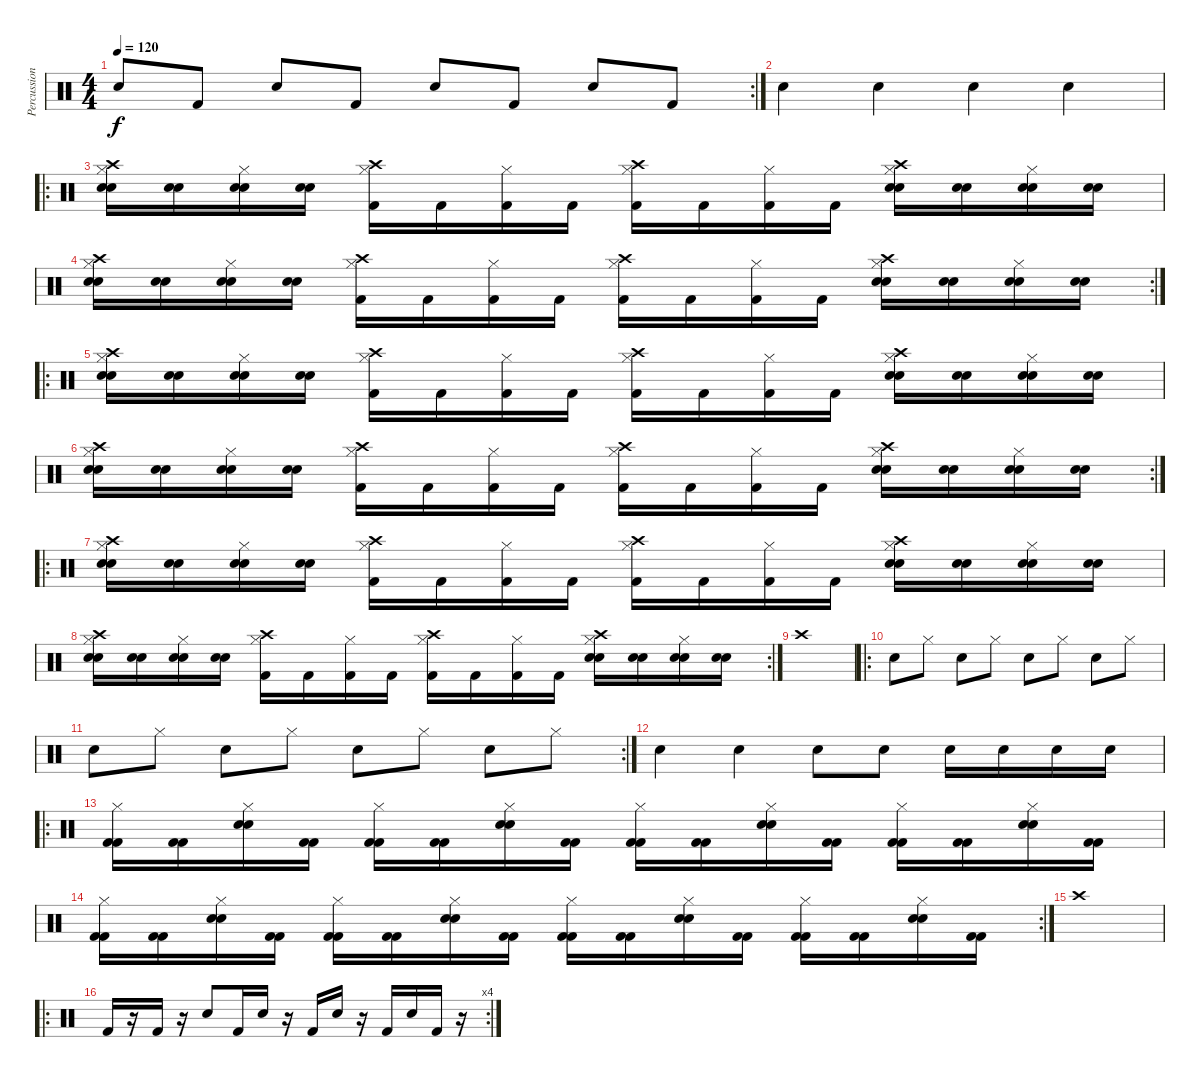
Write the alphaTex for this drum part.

\track ("Percussions" "Percussion") {instrument percussion}
\staff {score}
\articulation defaults
\rc 2
\ts (4 4)
\tempo 120
\clef neutral
\ks c "Snare (hit) 2".8{dy f} "Kick (hit) 2".8 "Snare (hit) 2".8 "Kick (hit) 2".8 "Snare (hit) 2".8 "Kick (hit) 2".8 "Snare (hit) 2".8 "Kick (hit) 2".8
|
"Snare (hit) 2".4 "Snare (hit) 2".4 "Snare (hit) 2".4 "Snare (hit) 2".4 |
\ro
("Hi-Hat (closed)" "Crash high (hit)" "Snare (hit) 2" "Snare (hit) 2").16 ("Snare (hit) 2" "Snare (hit) 2").16 ("Hi-Hat (closed)" "Snare (hit) 2" "Snare (hit) 2").16 ("Snare (hit) 2" "Snare (hit) 2").16 ("Hi-Hat (closed)" "Crash high (hit)" "Kick (hit) 2").16 "Kick (hit) 2".16 ("Hi-Hat (closed)" "Kick (hit) 2").16 "Kick (hit) 2".16 ("Hi-Hat (closed)" "Crash high (hit)" "Kick (hit) 2").16 "Kick (hit) 2".16 ("Hi-Hat (closed)" "Kick (hit) 2").16 "Kick (hit) 2".16 ("Hi-Hat (closed)" "Crash high (hit)" "Snare (hit) 2" "Snare (hit) 2").16 ("Snare (hit) 2" "Snare (hit) 2").16 ("Hi-Hat (closed)" "Snare (hit) 2" "Snare (hit) 2").16 ("Snare (hit) 2" "Snare (hit) 2").16 |
\rc 2
("Hi-Hat (closed)" "Crash high (hit)" "Snare (hit) 2" "Snare (hit) 2").16 ("Snare (hit) 2" "Snare (hit) 2").16 ("Hi-Hat (closed)" "Snare (hit) 2" "Snare (hit) 2").16 ("Snare (hit) 2" "Snare (hit) 2").16 ("Hi-Hat (closed)" "Crash high (hit)" "Kick (hit) 2").16 "Kick (hit) 2".16 ("Hi-Hat (closed)" "Kick (hit) 2").16 "Kick (hit) 2".16 ("Hi-Hat (closed)" "Crash high (hit)" "Kick (hit) 2").16 "Kick (hit) 2".16 ("Hi-Hat (closed)" "Kick (hit) 2").16 "Kick (hit) 2".16 ("Hi-Hat (closed)" "Crash high (hit)" "Snare (hit) 2" "Snare (hit) 2").16 ("Snare (hit) 2" "Snare (hit) 2").16 ("Hi-Hat (closed)" "Snare (hit) 2" "Snare (hit) 2").16 ("Snare (hit) 2" "Snare (hit) 2").16 |
\ro
("Hi-Hat (closed)" "Crash high (hit)" "Snare (hit) 2" "Snare (hit) 2").16 ("Snare (hit) 2" "Snare (hit) 2").16 ("Hi-Hat (closed)" "Snare (hit) 2" "Snare (hit) 2").16 ("Snare (hit) 2" "Snare (hit) 2").16 ("Hi-Hat (closed)" "Crash high (hit)" "Kick (hit) 2").16 "Kick (hit) 2".16 ("Hi-Hat (closed)" "Kick (hit) 2").16 "Kick (hit) 2".16 ("Hi-Hat (closed)" "Crash high (hit)" "Kick (hit) 2").16 "Kick (hit) 2".16 ("Hi-Hat (closed)" "Kick (hit) 2").16 "Kick (hit) 2".16 ("Hi-Hat (closed)" "Crash high (hit)" "Snare (hit) 2" "Snare (hit) 2").16 ("Snare (hit) 2" "Snare (hit) 2").16 ("Hi-Hat (closed)" "Snare (hit) 2" "Snare (hit) 2").16 ("Snare (hit) 2" "Snare (hit) 2").16 |
\rc 2
("Hi-Hat (closed)" "Crash high (hit)" "Snare (hit) 2" "Snare (hit) 2").16 ("Snare (hit) 2" "Snare (hit) 2").16 ("Hi-Hat (closed)" "Snare (hit) 2" "Snare (hit) 2").16 ("Snare (hit) 2" "Snare (hit) 2").16 ("Hi-Hat (closed)" "Crash high (hit)" "Kick (hit) 2").16 "Kick (hit) 2".16 ("Hi-Hat (closed)" "Kick (hit) 2").16 "Kick (hit) 2".16 ("Hi-Hat (closed)" "Crash high (hit)" "Kick (hit) 2").16 "Kick (hit) 2".16 ("Hi-Hat (closed)" "Kick (hit) 2").16 "Kick (hit) 2".16 ("Hi-Hat (closed)" "Crash high (hit)" "Snare (hit) 2" "Snare (hit) 2").16 ("Snare (hit) 2" "Snare (hit) 2").16 ("Hi-Hat (closed)" "Snare (hit) 2" "Snare (hit) 2").16 ("Snare (hit) 2" "Snare (hit) 2").16 |
\ro
("Hi-Hat (closed)" "Crash high (hit)" "Snare (hit) 2" "Snare (hit) 2").16 ("Snare (hit) 2" "Snare (hit) 2").16 ("Hi-Hat (closed)" "Snare (hit) 2" "Snare (hit) 2").16 ("Snare (hit) 2" "Snare (hit) 2").16 ("Hi-Hat (closed)" "Crash high (hit)" "Kick (hit) 2").16 "Kick (hit) 2".16 ("Hi-Hat (closed)" "Kick (hit) 2").16 "Kick (hit) 2".16 ("Hi-Hat (closed)" "Crash high (hit)" "Kick (hit) 2").16 "Kick (hit) 2".16 ("Hi-Hat (closed)" "Kick (hit) 2").16 "Kick (hit) 2".16 ("Hi-Hat (closed)" "Crash high (hit)" "Snare (hit) 2" "Snare (hit) 2").16 ("Snare (hit) 2" "Snare (hit) 2").16 ("Hi-Hat (closed)" "Snare (hit) 2" "Snare (hit) 2").16 ("Snare (hit) 2" "Snare (hit) 2").16 |
\rc 2
("Hi-Hat (closed)" "Crash high (hit)" "Snare (hit) 2" "Snare (hit) 2").16 ("Snare (hit) 2" "Snare (hit) 2").16 ("Hi-Hat (closed)" "Snare (hit) 2" "Snare (hit) 2").16 ("Snare (hit) 2" "Snare (hit) 2").16 ("Hi-Hat (closed)" "Crash high (hit)" "Kick (hit) 2").16 "Kick (hit) 2".16 ("Hi-Hat (closed)" "Kick (hit) 2").16 "Kick (hit) 2".16 ("Hi-Hat (closed)" "Crash high (hit)" "Kick (hit) 2").16 "Kick (hit) 2".16 ("Hi-Hat (closed)" "Kick (hit) 2").16 "Kick (hit) 2".16 ("Hi-Hat (closed)" "Crash high (hit)" "Snare (hit) 2" "Snare (hit) 2").16 ("Snare (hit) 2" "Snare (hit) 2").16 ("Hi-Hat (closed)" "Snare (hit) 2" "Snare (hit) 2").16 ("Snare (hit) 2" "Snare (hit) 2").16 |
"Crash high (hit)".1 |
\ro "Snare (hit) 2".8 "Hi-Hat (closed)".8 "Snare (hit) 2".8 "Hi-Hat (closed)".8 "Snare (hit) 2".8 "Hi-Hat (closed)".8 "Snare (hit) 2".8 "Hi-Hat (closed)".8
|
\rc 2 "Snare (hit) 2".8 "Hi-Hat (closed)".8 "Snare (hit) 2".8 "Hi-Hat (closed)".8 "Snare (hit) 2".8 "Hi-Hat (closed)".8 "Snare (hit) 2".8 "Hi-Hat (closed)".8
|
"Snare (hit) 2".4 "Snare (hit) 2".4 "Snare (hit) 2".8 "Snare (hit) 2".8 "Snare (hit) 2".16 "Snare (hit) 2".16 "Snare (hit) 2".16 "Snare (hit) 2".16 |
\ro
("Hi-Hat (closed)" "Kick (hit) 2" "Kick (hit) 2").16 ("Kick (hit) 2" "Kick (hit) 2").16 ("Hi-Hat (closed)" "Snare (hit) 2" "Snare (hit) 2").16 ("Kick (hit) 2" "Kick (hit) 2").16 ("Hi-Hat (closed)" "Kick (hit) 2" "Kick (hit) 2").16 ("Kick (hit) 2" "Kick (hit) 2").16 ("Hi-Hat (closed)" "Snare (hit) 2" "Snare (hit) 2").16 ("Kick (hit) 2" "Kick (hit) 2").16 ("Hi-Hat (closed)" "Kick (hit) 2" "Kick (hit) 2").16 ("Kick (hit) 2" "Kick (hit) 2").16 ("Hi-Hat (closed)" "Snare (hit) 2" "Snare (hit) 2").16 ("Kick (hit) 2" "Kick (hit) 2").16 ("Hi-Hat (closed)" "Kick (hit) 2" "Kick (hit) 2").16 ("Kick (hit) 2" "Kick (hit) 2").16 ("Hi-Hat (closed)" "Snare (hit) 2" "Snare (hit) 2").16 ("Kick (hit) 2" "Kick (hit) 2").16 |
\rc 2
("Hi-Hat (closed)" "Kick (hit) 2" "Kick (hit) 2").16 ("Kick (hit) 2" "Kick (hit) 2").16 ("Hi-Hat (closed)" "Snare (hit) 2" "Snare (hit) 2").16 ("Kick (hit) 2" "Kick (hit) 2").16 ("Hi-Hat (closed)" "Kick (hit) 2" "Kick (hit) 2").16 ("Kick (hit) 2" "Kick (hit) 2").16 ("Hi-Hat (closed)" "Snare (hit) 2" "Snare (hit) 2").16 ("Kick (hit) 2" "Kick (hit) 2").16 ("Hi-Hat (closed)" "Kick (hit) 2" "Kick (hit) 2").16 ("Kick (hit) 2" "Kick (hit) 2").16 ("Hi-Hat (closed)" "Snare (hit) 2" "Snare (hit) 2").16 ("Kick (hit) 2" "Kick (hit) 2").16 ("Hi-Hat (closed)" "Kick (hit) 2" "Kick (hit) 2").16 ("Kick (hit) 2" "Kick (hit) 2").16 ("Hi-Hat (closed)" "Snare (hit) 2" "Snare (hit) 2").16 ("Kick (hit) 2" "Kick (hit) 2").16 |
"Crash high (hit)".1 |
\ro
\rc 4 "Kick (hit) 2".16
r.16 "Kick (hit) 2".16 r.16 "Snare (hit) 2".8 "Kick (hit) 2".16 "Snare (hit) 2".16 r.16 "Kick (hit) 2".16 "Snare (hit) 2".16 r.16 "Kick (hit) 2".16 "Snare (hit) 2".16 "Kick (hit) 2".16 r.16
